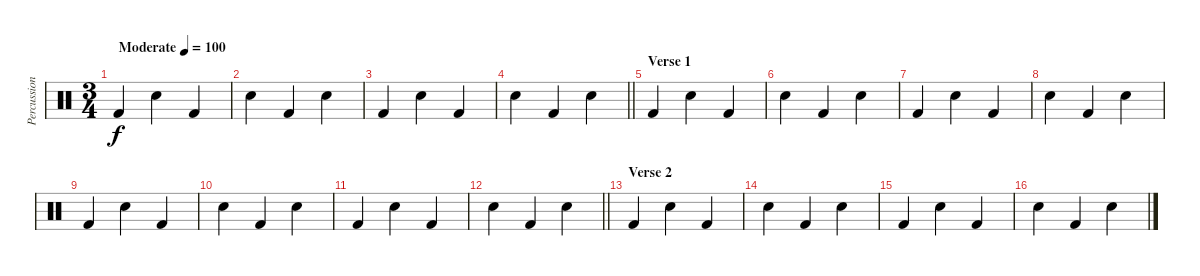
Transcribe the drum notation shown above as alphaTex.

\track ("Percussion" "Percussion") {instrument percussion}
\staff {score}
\articulation defaults
\ts (3 4)
\tempo (100 "Moderate")
\clef neutral
\ks c "Kick (hit) 2".4{dy f} "Snare (hit) 2".4 "Kick (hit) 2".4
|
"Snare (hit) 2".4 "Kick (hit) 2".4 "Snare (hit) 2".4 |
"Kick (hit) 2".4 "Snare (hit) 2".4 "Kick (hit) 2".4 |
\barLineRight lightlight "Snare (hit) 2".4 "Kick (hit) 2".4 "Snare (hit) 2".4
|
\section ("" "Verse 1")
"Kick (hit) 2".4 "Snare (hit) 2".4 "Kick (hit) 2".4 |
"Snare (hit) 2".4 "Kick (hit) 2".4 "Snare (hit) 2".4 |
"Kick (hit) 2".4 "Snare (hit) 2".4 "Kick (hit) 2".4 |
"Snare (hit) 2".4 "Kick (hit) 2".4 "Snare (hit) 2".4 |
"Kick (hit) 2".4 "Snare (hit) 2".4 "Kick (hit) 2".4 |
"Snare (hit) 2".4 "Kick (hit) 2".4 "Snare (hit) 2".4 |
"Kick (hit) 2".4 "Snare (hit) 2".4 "Kick (hit) 2".4 |
\barLineRight lightlight "Snare (hit) 2".4 "Kick (hit) 2".4 "Snare (hit) 2".4
|
\section ("" "Verse 2")
"Kick (hit) 2".4 "Snare (hit) 2".4 "Kick (hit) 2".4 |
"Snare (hit) 2".4 "Kick (hit) 2".4 "Snare (hit) 2".4 |
"Kick (hit) 2".4 "Snare (hit) 2".4 "Kick (hit) 2".4 |
"Snare (hit) 2".4 "Kick (hit) 2".4 "Snare (hit) 2".4
